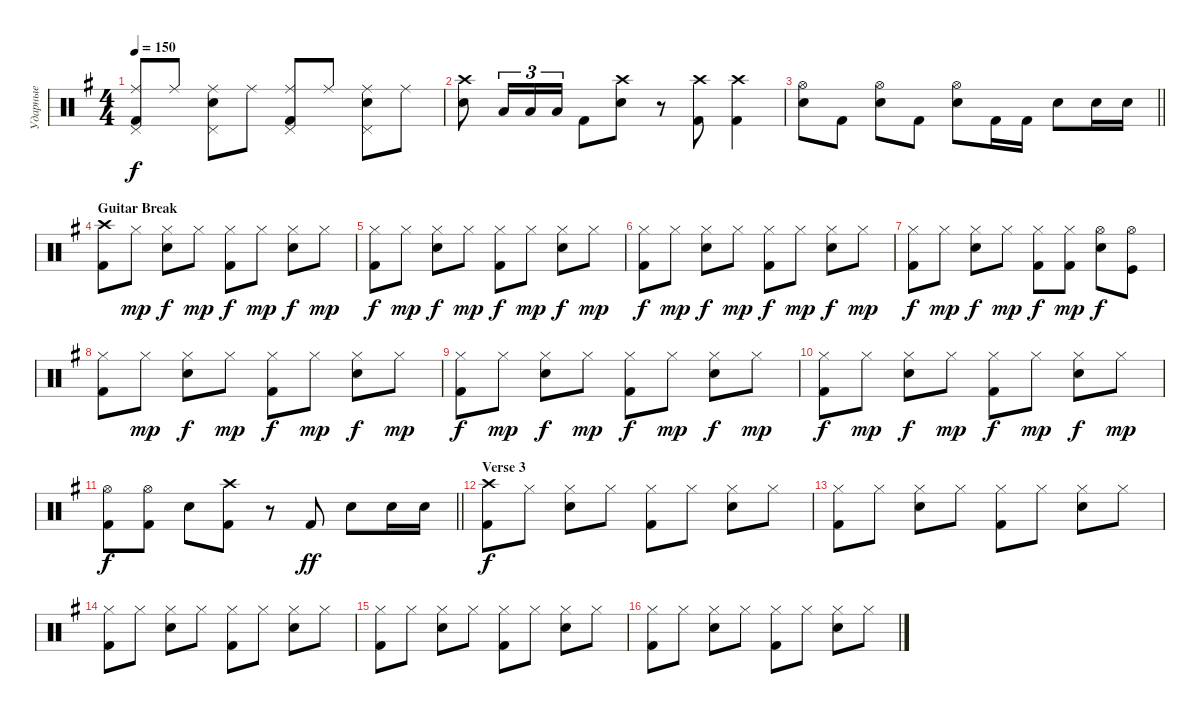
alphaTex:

\track ("Ударные" "Ударные") {instrument percussion}
\staff {score}
\articulation defaults
\ts (4 4)
\tempo 150
\clef neutral
\ks eminor
("Ride (middle)" "Kick (hit) 2" "Pedal Hi-Hat (hit)").8{dy f} "Ride (middle)".8 ("Ride (middle)" "Snare (hit) 2" "Pedal Hi-Hat (hit)").8 "Ride (middle)".8 ("Ride (middle)" "Kick (hit) 2" "Pedal Hi-Hat (hit)").8 "Ride (middle)".8 ("Ride (middle)" "Snare (hit) 2" "Pedal Hi-Hat (hit)").8 "Ride (middle)".8 |
("Snare (hit) 2" "Crash high (hit)").8 "Low Tom (hit)".16{tu (3 2)} "Low Tom (hit)".16{tu (3 2)} "Low Tom (hit)".16{tu (3 2)} "Kick (hit) 2".8 ("Snare (hit) 2" "Crash high (hit)").8 r.8 ("Kick (hit) 2" "Crash high (hit)").8 ("Kick (hit) 2" "Crash high (hit)").4 |
\barLineRight lightlight
("Snare (hit) 2" "Hi-Hat (open)").8 "Kick (hit) 2".8 ("Snare (hit) 2" "Hi-Hat (open)").8 "Kick (hit) 2".8 ("Snare (hit) 2" "Hi-Hat (open)").8 "Kick (hit) 2".16 "Kick (hit) 2".16 "Snare (hit) 2".8 "Snare (hit) 2".16 "Snare (hit) 2".16 |
\section ("" "Guitar Break")
("Crash high (hit)" "Kick (hit) 2").8 "Hi-Hat (closed)".8{dy mp} ("Hi-Hat (closed)" "Snare (hit) 2").8{dy f} "Hi-Hat (closed)".8{dy mp} ("Hi-Hat (closed)" "Kick (hit) 2").8{dy f} "Hi-Hat (closed)".8{dy mp} ("Hi-Hat (closed)" "Snare (hit) 2").8{dy f} "Hi-Hat (closed)".8{dy mp} |
("Hi-Hat (closed)" "Kick (hit) 2").8{dy f} "Hi-Hat (closed)".8{dy mp} ("Hi-Hat (closed)" "Snare (hit) 2").8{dy f} "Hi-Hat (closed)".8{dy mp} ("Hi-Hat (closed)" "Kick (hit) 2").8{dy f} "Hi-Hat (closed)".8{dy mp} ("Hi-Hat (closed)" "Snare (hit) 2").8{dy f} "Hi-Hat (closed)".8{dy mp} |
("Hi-Hat (closed)" "Kick (hit) 2").8{dy f} "Hi-Hat (closed)".8{dy mp} ("Hi-Hat (closed)" "Snare (hit) 2").8{dy f} "Hi-Hat (closed)".8{dy mp} ("Hi-Hat (closed)" "Kick (hit) 2").8{dy f} "Hi-Hat (closed)".8{dy mp} ("Hi-Hat (closed)" "Snare (hit) 2").8{dy f} "Hi-Hat (closed)".8{dy mp} |
("Hi-Hat (closed)" "Kick (hit) 2").8{dy f} "Hi-Hat (closed)".8{dy mp} ("Hi-Hat (closed)" "Snare (hit) 2").8{dy f} "Hi-Hat (closed)".8{dy mp} ("Hi-Hat (closed)" "Kick (hit) 2").8{dy f} ("Hi-Hat (closed)" "Kick (hit) 2").8{dy mp} ("Hi-Hat (open)" "Snare (hit) 2").8{dy f} ("Kick (hit)" "Hi-Hat (open)").8 |
("Hi-Hat (closed)" "Kick (hit) 2").8 "Hi-Hat (closed)".8{dy mp} ("Hi-Hat (closed)" "Snare (hit) 2").8{dy f} "Hi-Hat (closed)".8{dy mp} ("Hi-Hat (closed)" "Kick (hit) 2").8{dy f} "Hi-Hat (closed)".8{dy mp} ("Hi-Hat (closed)" "Snare (hit) 2").8{dy f} "Hi-Hat (closed)".8{dy mp} |
("Hi-Hat (closed)" "Kick (hit) 2").8{dy f} "Hi-Hat (closed)".8{dy mp} ("Hi-Hat (closed)" "Snare (hit) 2").8{dy f} "Hi-Hat (closed)".8{dy mp} ("Hi-Hat (closed)" "Kick (hit) 2").8{dy f} "Hi-Hat (closed)".8{dy mp} ("Hi-Hat (closed)" "Snare (hit) 2").8{dy f} "Hi-Hat (closed)".8{dy mp} |
("Hi-Hat (closed)" "Kick (hit) 2").8{dy f} "Hi-Hat (closed)".8{dy mp} ("Hi-Hat (closed)" "Snare (hit) 2").8{dy f} "Hi-Hat (closed)".8{dy mp} ("Hi-Hat (closed)" "Kick (hit) 2").8{dy f} "Hi-Hat (closed)".8{dy mp} ("Hi-Hat (closed)" "Snare (hit) 2").8{dy f} "Hi-Hat (closed)".8{dy mp} |
\barLineRight lightlight
("Hi-Hat (open)" "Kick (hit) 2").8{dy f} ("Kick (hit) 2" "Hi-Hat (open)").8 "Snare (hit) 2".8 ("Kick (hit) 2" "Crash high (hit)").8 r.8 "Kick (hit) 2".8{dy ff} "Snare (hit) 2".8 "Snare (hit) 2".16 "Snare (hit) 2".16 |
\section ("" "Verse 3")
("Crash high (hit)" "Kick (hit) 2").8{dy f} "Hi-Hat (closed)".8 ("Hi-Hat (closed)" "Snare (hit) 2").8 "Hi-Hat (closed)".8 ("Hi-Hat (closed)" "Kick (hit) 2").8 "Hi-Hat (closed)".8 ("Hi-Hat (closed)" "Snare (hit) 2").8 "Hi-Hat (closed)".8 |
("Hi-Hat (closed)" "Kick (hit) 2").8 "Hi-Hat (closed)".8 ("Hi-Hat (closed)" "Snare (hit) 2").8 "Hi-Hat (closed)".8 ("Hi-Hat (closed)" "Kick (hit) 2").8 "Hi-Hat (closed)".8 ("Hi-Hat (closed)" "Snare (hit) 2").8 "Hi-Hat (closed)".8 |
("Hi-Hat (closed)" "Kick (hit) 2").8 "Hi-Hat (closed)".8 ("Hi-Hat (closed)" "Snare (hit) 2").8 "Hi-Hat (closed)".8 ("Hi-Hat (closed)" "Kick (hit) 2").8 "Hi-Hat (closed)".8 ("Hi-Hat (closed)" "Snare (hit) 2").8 "Hi-Hat (closed)".8 |
("Hi-Hat (closed)" "Kick (hit) 2").8 "Hi-Hat (closed)".8 ("Hi-Hat (closed)" "Snare (hit) 2").8 "Hi-Hat (closed)".8 ("Hi-Hat (closed)" "Kick (hit) 2").8 "Hi-Hat (closed)".8 ("Hi-Hat (closed)" "Snare (hit) 2").8 "Hi-Hat (closed)".8 |
("Hi-Hat (closed)" "Kick (hit) 2").8 "Hi-Hat (closed)".8 ("Hi-Hat (closed)" "Snare (hit) 2").8 "Hi-Hat (closed)".8 ("Hi-Hat (closed)" "Kick (hit) 2").8 "Hi-Hat (closed)".8 ("Hi-Hat (closed)" "Snare (hit) 2").8 "Hi-Hat (closed)".8
